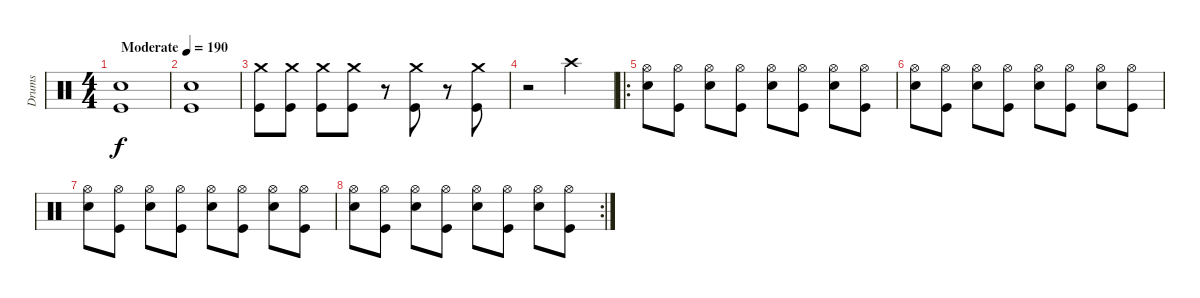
\track ("Drums" "Drums") {instrument percussion}
\staff {score}
\articulation defaults
\ts (4 4)
\tempo (190 "Moderate")
\clef neutral
\ks c
("Snare (hit) 2" "Kick (hit)").1{dy f} |
("Snare (hit) 2" "Kick (hit)").1 |
("Crash medium (hit)" "Kick (hit)").8 ("Crash medium (hit)" "Kick (hit)").8 ("Crash medium (hit)" "Kick (hit)").8 ("Crash medium (hit)" "Kick (hit)").8 r.8{volume 0} ("Crash medium (hit)" "Kick (hit)").8{volume 13} r.8{volume 0} ("Crash medium (hit)" "Kick (hit)").8{volume 13} |
r.2{volume 0} "Crash high (hit)".2{volume 13} |
\ro
("Hi-Hat (open)" "Snare (hit) 2").8 ("Hi-Hat (open)" "Kick (hit)").8 ("Hi-Hat (open)" "Snare (hit) 2").8 ("Hi-Hat (open)" "Kick (hit)").8 ("Hi-Hat (open)" "Snare (hit) 2").8 ("Hi-Hat (open)" "Kick (hit)").8 ("Hi-Hat (open)" "Snare (hit) 2").8 ("Hi-Hat (open)" "Kick (hit)").8 |
("Hi-Hat (open)" "Snare (hit) 2").8 ("Hi-Hat (open)" "Kick (hit)").8 ("Hi-Hat (open)" "Snare (hit) 2").8 ("Hi-Hat (open)" "Kick (hit)").8 ("Hi-Hat (open)" "Snare (hit) 2").8 ("Hi-Hat (open)" "Kick (hit)").8 ("Hi-Hat (open)" "Snare (hit) 2").8 ("Hi-Hat (open)" "Kick (hit)").8 |
("Hi-Hat (open)" "Snare (hit) 2").8 ("Hi-Hat (open)" "Kick (hit)").8 ("Hi-Hat (open)" "Snare (hit) 2").8 ("Hi-Hat (open)" "Kick (hit)").8 ("Hi-Hat (open)" "Snare (hit) 2").8 ("Hi-Hat (open)" "Kick (hit)").8 ("Hi-Hat (open)" "Snare (hit) 2").8 ("Hi-Hat (open)" "Kick (hit)").8 |
\rc 2
("Hi-Hat (open)" "Snare (hit) 2").8 ("Hi-Hat (open)" "Kick (hit)").8 ("Hi-Hat (open)" "Snare (hit) 2").8 ("Hi-Hat (open)" "Kick (hit)").8 ("Hi-Hat (open)" "Snare (hit) 2").8 ("Hi-Hat (open)" "Kick (hit)").8 ("Hi-Hat (open)" "Snare (hit) 2").8 ("Hi-Hat (open)" "Kick (hit)").8
